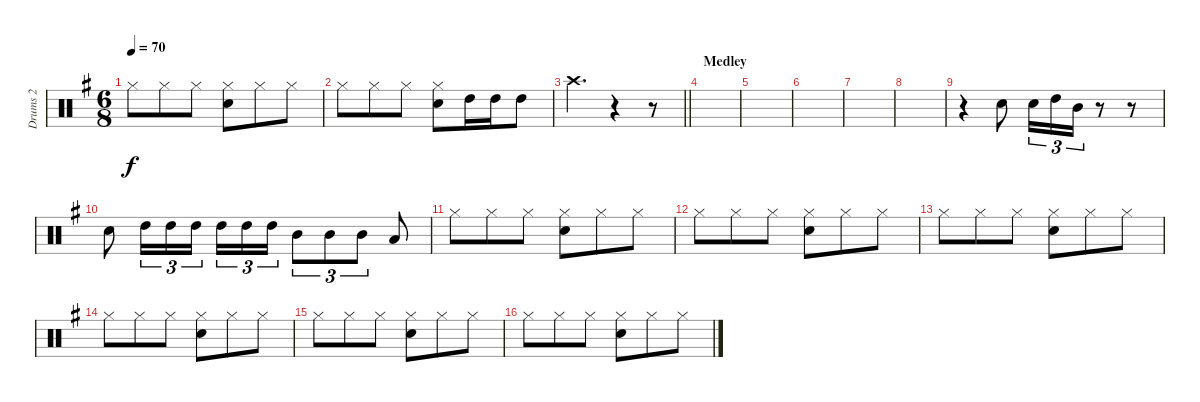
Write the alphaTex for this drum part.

\track ("Drums 2" "Drums 2") {instrument percussion}
\staff {score}
\articulation defaults
\ts (6 8)
\tempo 70
\clef neutral
\ks g "Hi-Hat (closed)".8{dy f} "Hi-Hat (closed)".8 "Hi-Hat (closed)".8
("Snare (hit) 2" "Hi-Hat (closed)").8 "Hi-Hat (closed)".8 "Hi-Hat (closed)".8 |
"Hi-Hat (closed)".8 "Hi-Hat (closed)".8 "Hi-Hat (closed)".8 ("Hi-Hat (closed)" "Snare (hit) 2").8 "High Tom (hit)".16 "High Tom (hit)".16 "High Tom (hit)".8 |
\barLineRight lightlight "Crash high (hit)".4{d}
r.4 r.8 |
\section ("" "Medley")
|
|
|
|
|
r.4 "Snare (hit) 2".8 "Snare (hit) 2".16{tu (3 2)} "High Tom (hit)".16{tu (3 2)} "Mid Tom (hit)".16{tu (3 2)} r.8 r.8 |
"Snare (hit) 2".8 "High Tom (hit)".16{tu (3 2)} "High Tom (hit)".16{tu (3 2)} "High Tom (hit)".16{tu (3 2) beam splitsecondary} "High Tom (hit)".16{tu (3 2)} "High Tom (hit)".16{tu (3 2)} "High Tom (hit)".16{tu (3 2)} "Mid Tom (hit)".8{tu (3 2)} "Mid Tom (hit)".8{tu (3 2)} "Mid Tom (hit)".8{tu (3 2)} "Low Tom (hit)".8 |
"Hi-Hat (closed)".8 "Hi-Hat (closed)".8 "Hi-Hat (closed)".8 ("Snare (hit) 2" "Hi-Hat (closed)").8 "Hi-Hat (closed)".8 "Hi-Hat (closed)".8 |
"Hi-Hat (closed)".8 "Hi-Hat (closed)".8 "Hi-Hat (closed)".8 ("Snare (hit) 2" "Hi-Hat (closed)").8 "Hi-Hat (closed)".8 "Hi-Hat (closed)".8 |
"Hi-Hat (closed)".8 "Hi-Hat (closed)".8 "Hi-Hat (closed)".8 ("Snare (hit) 2" "Hi-Hat (closed)").8 "Hi-Hat (closed)".8 "Hi-Hat (closed)".8 |
"Hi-Hat (closed)".8 "Hi-Hat (closed)".8 "Hi-Hat (closed)".8 ("Snare (hit) 2" "Hi-Hat (closed)").8 "Hi-Hat (closed)".8 "Hi-Hat (closed)".8 |
"Hi-Hat (closed)".8 "Hi-Hat (closed)".8 "Hi-Hat (closed)".8 ("Snare (hit) 2" "Hi-Hat (closed)").8 "Hi-Hat (closed)".8 "Hi-Hat (closed)".8 |
"Hi-Hat (closed)".8 "Hi-Hat (closed)".8 "Hi-Hat (closed)".8 ("Snare (hit) 2" "Hi-Hat (closed)").8 "Hi-Hat (closed)".8 "Hi-Hat (closed)".8
